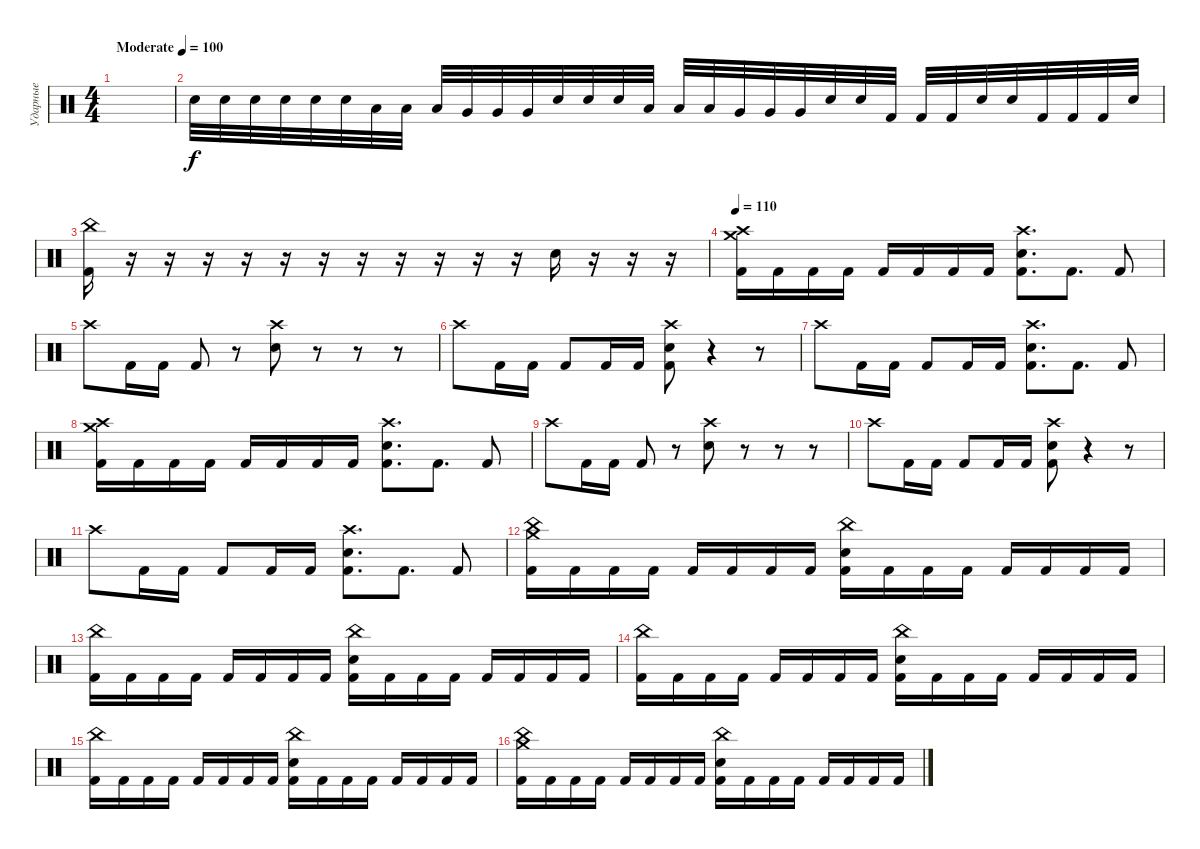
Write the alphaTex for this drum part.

\track ("Ударные" "Ударные") {instrument percussion}
\staff
\articulation defaults
\ts (4 4)
\tempo (100 "Moderate")
\clef neutral
\ks c
|
"Electric Snare (hit)".32 "Electric Snare (hit)".32 "Electric Snare (hit)".32 "Electric Snare (hit)".32 "Electric Snare (hit)".32 "Electric Snare (hit)".32 "Low Tom (hit)".32 "Low Tom (hit)".32 "Low Tom (hit)".32 "Very Low Tom (hit)".32 "Very Low Tom (hit)".32 "Very Low Tom (hit)".32 "Electric Snare (hit)".32 "Electric Snare (hit)".32 "Electric Snare (hit)".32 "Low Tom (hit)".32 "Low Tom (hit)".32 "Low Tom (hit)".32 "Very Low Tom (hit)".32 "Very Low Tom (hit)".32 "Very Low Tom (hit)".32 "Electric Snare (hit)".32 "Electric Snare (hit)".32 "Kick (hit) 2".32 "Kick (hit) 2".32 "Kick (hit) 2".32 "Electric Snare (hit)".32 "Electric Snare (hit)".32 "Kick (hit) 2".32 "Kick (hit) 2".32 "Kick (hit) 2".32 "Electric Snare (hit)".32 |
("China (hit)" "Kick (hit) 2").16 r.16 r.16 r.16 r.16 r.16 r.16 r.16 r.16 r.16 r.16 r.16 "Electric Snare (hit)".16 r.16 r.16 r.16 |
\tempo 110
("Crash high (hit)" "Crash medium (hit)" "Kick (hit) 2").16 "Kick (hit) 2".16 "Kick (hit) 2".16 "Kick (hit) 2".16 "Kick (hit) 2".16 "Kick (hit) 2".16 "Kick (hit) 2".16 "Kick (hit) 2".16 ("Crash high (hit)" "Electric Snare (hit)" "Kick (hit) 2").8{d} "Kick (hit) 2".8{d} "Kick (hit) 2".8 |
"Crash high (hit)".8 "Kick (hit) 2".16 "Kick (hit) 2".16 "Kick (hit) 2".8 r.8 ("Crash high (hit)" "Electric Snare (hit)").8 r.8 r.8 r.8 |
"Crash high (hit)".8 "Kick (hit) 2".16 "Kick (hit) 2".16 "Kick (hit) 2".8 "Kick (hit) 2".16 "Kick (hit) 2".16 ("Crash high (hit)" "Electric Snare (hit)" "Kick (hit) 2").8 r.4 r.8 |
"Crash high (hit)".8 "Kick (hit) 2".16 "Kick (hit) 2".16 "Kick (hit) 2".8 "Kick (hit) 2".16 "Kick (hit) 2".16 ("Crash high (hit)" "Electric Snare (hit)" "Kick (hit) 2").8{d} "Kick (hit) 2".8{d} "Kick (hit) 2".8 |
("Crash high (hit)" "Crash medium (hit)" "Kick (hit) 2").16 "Kick (hit) 2".16 "Kick (hit) 2".16 "Kick (hit) 2".16 "Kick (hit) 2".16 "Kick (hit) 2".16 "Kick (hit) 2".16 "Kick (hit) 2".16 ("Crash high (hit)" "Electric Snare (hit)" "Kick (hit) 2").8{d} "Kick (hit) 2".8{d} "Kick (hit) 2".8 |
"Crash high (hit)".8 "Kick (hit) 2".16 "Kick (hit) 2".16 "Kick (hit) 2".8 r.8 ("Crash high (hit)" "Electric Snare (hit)").8 r.8 r.8 r.8 |
"Crash high (hit)".8 "Kick (hit) 2".16 "Kick (hit) 2".16 "Kick (hit) 2".8 "Kick (hit) 2".16 "Kick (hit) 2".16 ("Crash high (hit)" "Electric Snare (hit)" "Kick (hit) 2").8 r.4 r.8 |
"Crash high (hit)".8 "Kick (hit) 2".16 "Kick (hit) 2".16 "Kick (hit) 2".8 "Kick (hit) 2".16 "Kick (hit) 2".16 ("Crash high (hit)" "Electric Snare (hit)" "Kick (hit) 2").8{d} "Kick (hit) 2".8{d} "Kick (hit) 2".8 |
("China (hit)" "Crash medium (hit)" "Kick (hit) 2").16 "Kick (hit) 2".16 "Kick (hit) 2".16 "Kick (hit) 2".16 "Kick (hit) 2".16 "Kick (hit) 2".16 "Kick (hit) 2".16 "Kick (hit) 2".16 ("China (hit)" "Electric Snare (hit)" "Kick (hit) 2").16 "Kick (hit) 2".16 "Kick (hit) 2".16 "Kick (hit) 2".16 "Kick (hit) 2".16 "Kick (hit) 2".16 "Kick (hit) 2".16 "Kick (hit) 2".16 |
("China (hit)" "Kick (hit) 2").16 "Kick (hit) 2".16 "Kick (hit) 2".16 "Kick (hit) 2".16 "Kick (hit) 2".16 "Kick (hit) 2".16 "Kick (hit) 2".16 "Kick (hit) 2".16 ("China (hit)" "Electric Snare (hit)" "Kick (hit) 2").16 "Kick (hit) 2".16 "Kick (hit) 2".16 "Kick (hit) 2".16 "Kick (hit) 2".16 "Kick (hit) 2".16 "Kick (hit) 2".16 "Kick (hit) 2".16 |
("China (hit)" "Kick (hit) 2").16 "Kick (hit) 2".16 "Kick (hit) 2".16 "Kick (hit) 2".16 "Kick (hit) 2".16 "Kick (hit) 2".16 "Kick (hit) 2".16 "Kick (hit) 2".16 ("China (hit)" "Electric Snare (hit)" "Kick (hit) 2").16 "Kick (hit) 2".16 "Kick (hit) 2".16 "Kick (hit) 2".16 "Kick (hit) 2".16 "Kick (hit) 2".16 "Kick (hit) 2".16 "Kick (hit) 2".16 |
("China (hit)" "Kick (hit) 2").16 "Kick (hit) 2".16 "Kick (hit) 2".16 "Kick (hit) 2".16 "Kick (hit) 2".16 "Kick (hit) 2".16 "Kick (hit) 2".16 "Kick (hit) 2".16 ("China (hit)" "Electric Snare (hit)" "Kick (hit) 2").16 "Kick (hit) 2".16 "Kick (hit) 2".16 "Kick (hit) 2".16 "Kick (hit) 2".16 "Kick (hit) 2".16 "Kick (hit) 2".16 "Kick (hit) 2".16 |
("China (hit)" "Crash medium (hit)" "Kick (hit) 2").16 "Kick (hit) 2".16 "Kick (hit) 2".16 "Kick (hit) 2".16 "Kick (hit) 2".16 "Kick (hit) 2".16 "Kick (hit) 2".16 "Kick (hit) 2".16 ("China (hit)" "Electric Snare (hit)" "Kick (hit) 2").16 "Kick (hit) 2".16 "Kick (hit) 2".16 "Kick (hit) 2".16 "Kick (hit) 2".16 "Kick (hit) 2".16 "Kick (hit) 2".16 "Kick (hit) 2".16
